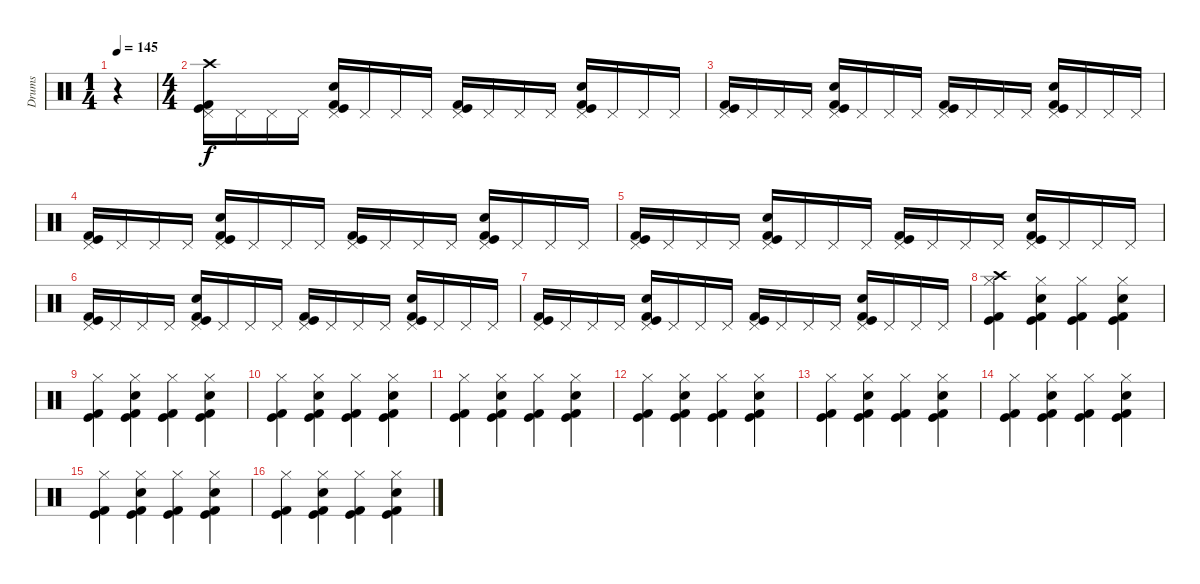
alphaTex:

\track ("Drums" "Drums") {instrument percussion}
\staff {score}
\articulation defaults
\ts (1 4)
\tempo 145
\clef neutral
\ks c
r.4{dy f} |
\ts (4 4)
("Crash high (hit)" "Kick (hit) 2" "Pedal Hi-Hat (hit)" "Kick (hit)").16 "Pedal Hi-Hat (hit)".16 "Pedal Hi-Hat (hit)".16 "Pedal Hi-Hat (hit)".16 ("Pedal Hi-Hat (hit)" "Electric Snare (hit)" "Kick (hit) 2" "Kick (hit)").16 "Pedal Hi-Hat (hit)".16 "Pedal Hi-Hat (hit)".16 "Pedal Hi-Hat (hit)".16 ("Pedal Hi-Hat (hit)" "Kick (hit) 2" "Kick (hit)").16 "Pedal Hi-Hat (hit)".16 "Pedal Hi-Hat (hit)".16 "Pedal Hi-Hat (hit)".16 ("Electric Snare (hit)" "Pedal Hi-Hat (hit)" "Kick (hit) 2" "Kick (hit)").16 "Pedal Hi-Hat (hit)".16 "Pedal Hi-Hat (hit)".16 "Pedal Hi-Hat (hit)".16 |
("Kick (hit) 2" "Pedal Hi-Hat (hit)" "Kick (hit)").16 "Pedal Hi-Hat (hit)".16 "Pedal Hi-Hat (hit)".16 "Pedal Hi-Hat (hit)".16 ("Pedal Hi-Hat (hit)" "Electric Snare (hit)" "Kick (hit) 2" "Kick (hit)").16 "Pedal Hi-Hat (hit)".16 "Pedal Hi-Hat (hit)".16 "Pedal Hi-Hat (hit)".16 ("Pedal Hi-Hat (hit)" "Kick (hit) 2" "Kick (hit)").16 "Pedal Hi-Hat (hit)".16 "Pedal Hi-Hat (hit)".16 "Pedal Hi-Hat (hit)".16 ("Electric Snare (hit)" "Pedal Hi-Hat (hit)" "Kick (hit) 2" "Kick (hit)").16 "Pedal Hi-Hat (hit)".16 "Pedal Hi-Hat (hit)".16 "Pedal Hi-Hat (hit)".16 |
("Kick (hit) 2" "Pedal Hi-Hat (hit)" "Kick (hit)").16 "Pedal Hi-Hat (hit)".16 "Pedal Hi-Hat (hit)".16 "Pedal Hi-Hat (hit)".16 ("Pedal Hi-Hat (hit)" "Electric Snare (hit)" "Kick (hit) 2" "Kick (hit)").16 "Pedal Hi-Hat (hit)".16 "Pedal Hi-Hat (hit)".16 "Pedal Hi-Hat (hit)".16 ("Pedal Hi-Hat (hit)" "Kick (hit) 2" "Kick (hit)").16 "Pedal Hi-Hat (hit)".16 "Pedal Hi-Hat (hit)".16 "Pedal Hi-Hat (hit)".16 ("Electric Snare (hit)" "Pedal Hi-Hat (hit)" "Kick (hit) 2" "Kick (hit)").16 "Pedal Hi-Hat (hit)".16 "Pedal Hi-Hat (hit)".16 "Pedal Hi-Hat (hit)".16 |
("Kick (hit) 2" "Pedal Hi-Hat (hit)" "Kick (hit)").16 "Pedal Hi-Hat (hit)".16 "Pedal Hi-Hat (hit)".16 "Pedal Hi-Hat (hit)".16 ("Pedal Hi-Hat (hit)" "Electric Snare (hit)" "Kick (hit) 2" "Kick (hit)").16 "Pedal Hi-Hat (hit)".16 "Pedal Hi-Hat (hit)".16 "Pedal Hi-Hat (hit)".16 ("Pedal Hi-Hat (hit)" "Kick (hit) 2" "Kick (hit)").16 "Pedal Hi-Hat (hit)".16 "Pedal Hi-Hat (hit)".16 "Pedal Hi-Hat (hit)".16 ("Electric Snare (hit)" "Pedal Hi-Hat (hit)" "Kick (hit) 2" "Kick (hit)").16 "Pedal Hi-Hat (hit)".16 "Pedal Hi-Hat (hit)".16 "Pedal Hi-Hat (hit)".16 |
("Kick (hit) 2" "Pedal Hi-Hat (hit)" "Kick (hit)").16 "Pedal Hi-Hat (hit)".16 "Pedal Hi-Hat (hit)".16 "Pedal Hi-Hat (hit)".16 ("Pedal Hi-Hat (hit)" "Electric Snare (hit)" "Kick (hit) 2" "Kick (hit)").16 "Pedal Hi-Hat (hit)".16 "Pedal Hi-Hat (hit)".16 "Pedal Hi-Hat (hit)".16 ("Pedal Hi-Hat (hit)" "Kick (hit) 2" "Kick (hit)").16 "Pedal Hi-Hat (hit)".16 "Pedal Hi-Hat (hit)".16 "Pedal Hi-Hat (hit)".16 ("Electric Snare (hit)" "Pedal Hi-Hat (hit)" "Kick (hit) 2" "Kick (hit)").16 "Pedal Hi-Hat (hit)".16 "Pedal Hi-Hat (hit)".16 "Pedal Hi-Hat (hit)".16 |
("Kick (hit) 2" "Pedal Hi-Hat (hit)" "Kick (hit)").16 "Pedal Hi-Hat (hit)".16 "Pedal Hi-Hat (hit)".16 "Pedal Hi-Hat (hit)".16 ("Pedal Hi-Hat (hit)" "Electric Snare (hit)" "Kick (hit) 2" "Kick (hit)").16 "Pedal Hi-Hat (hit)".16 "Pedal Hi-Hat (hit)".16 "Pedal Hi-Hat (hit)".16 ("Pedal Hi-Hat (hit)" "Kick (hit) 2" "Kick (hit)").16 "Pedal Hi-Hat (hit)".16 "Pedal Hi-Hat (hit)".16 "Pedal Hi-Hat (hit)".16 ("Electric Snare (hit)" "Pedal Hi-Hat (hit)" "Kick (hit) 2" "Kick (hit)").16 "Pedal Hi-Hat (hit)".16 "Pedal Hi-Hat (hit)".16 "Pedal Hi-Hat (hit)".16 |
("Crash high (hit)" "Hi-Hat (closed)" "Kick (hit) 2" "Kick (hit)").4 ("Hi-Hat (closed)" "Electric Snare (hit)" "Kick (hit) 2" "Kick (hit)").4 ("Hi-Hat (closed)" "Kick (hit) 2" "Kick (hit)").4 ("Electric Snare (hit)" "Hi-Hat (closed)" "Kick (hit) 2" "Kick (hit)").4 |
("Kick (hit) 2" "Hi-Hat (closed)" "Kick (hit)").4 ("Electric Snare (hit)" "Hi-Hat (closed)" "Kick (hit) 2" "Kick (hit)").4 ("Hi-Hat (closed)" "Kick (hit) 2" "Kick (hit)").4 ("Hi-Hat (closed)" "Electric Snare (hit)" "Kick (hit) 2" "Kick (hit)").4 |
("Hi-Hat (closed)" "Kick (hit) 2" "Kick (hit)").4 ("Hi-Hat (closed)" "Electric Snare (hit)" "Kick (hit) 2" "Kick (hit)").4 ("Hi-Hat (closed)" "Kick (hit) 2" "Kick (hit)").4 ("Electric Snare (hit)" "Hi-Hat (closed)" "Kick (hit) 2" "Kick (hit)").4 |
("Kick (hit) 2" "Hi-Hat (closed)" "Kick (hit)").4 ("Electric Snare (hit)" "Hi-Hat (closed)" "Kick (hit) 2" "Kick (hit)").4 ("Hi-Hat (closed)" "Kick (hit) 2" "Kick (hit)").4 ("Hi-Hat (closed)" "Electric Snare (hit)" "Kick (hit) 2" "Kick (hit)").4 |
("Hi-Hat (closed)" "Kick (hit) 2" "Kick (hit)").4 ("Hi-Hat (closed)" "Electric Snare (hit)" "Kick (hit) 2" "Kick (hit)").4 ("Hi-Hat (closed)" "Kick (hit) 2" "Kick (hit)").4 ("Electric Snare (hit)" "Hi-Hat (closed)" "Kick (hit) 2" "Kick (hit)").4 |
("Kick (hit) 2" "Hi-Hat (closed)" "Kick (hit)").4 ("Electric Snare (hit)" "Hi-Hat (closed)" "Kick (hit) 2" "Kick (hit)").4 ("Hi-Hat (closed)" "Kick (hit) 2" "Kick (hit)").4 ("Hi-Hat (closed)" "Electric Snare (hit)" "Kick (hit) 2" "Kick (hit)").4 |
("Hi-Hat (closed)" "Kick (hit) 2" "Kick (hit)").4 ("Hi-Hat (closed)" "Electric Snare (hit)" "Kick (hit) 2" "Kick (hit)").4 ("Hi-Hat (closed)" "Kick (hit) 2" "Kick (hit)").4 ("Electric Snare (hit)" "Hi-Hat (closed)" "Kick (hit) 2" "Kick (hit)").4 |
("Kick (hit) 2" "Hi-Hat (closed)" "Kick (hit)").4 ("Electric Snare (hit)" "Hi-Hat (closed)" "Kick (hit) 2" "Kick (hit)").4 ("Hi-Hat (closed)" "Kick (hit) 2" "Kick (hit)").4 ("Hi-Hat (closed)" "Electric Snare (hit)" "Kick (hit) 2" "Kick (hit)").4 |
("Hi-Hat (closed)" "Kick (hit) 2" "Kick (hit)").4 ("Hi-Hat (closed)" "Electric Snare (hit)" "Kick (hit) 2" "Kick (hit)").4 ("Hi-Hat (closed)" "Kick (hit) 2" "Kick (hit)").4 ("Electric Snare (hit)" "Hi-Hat (closed)" "Kick (hit) 2" "Kick (hit)").4
